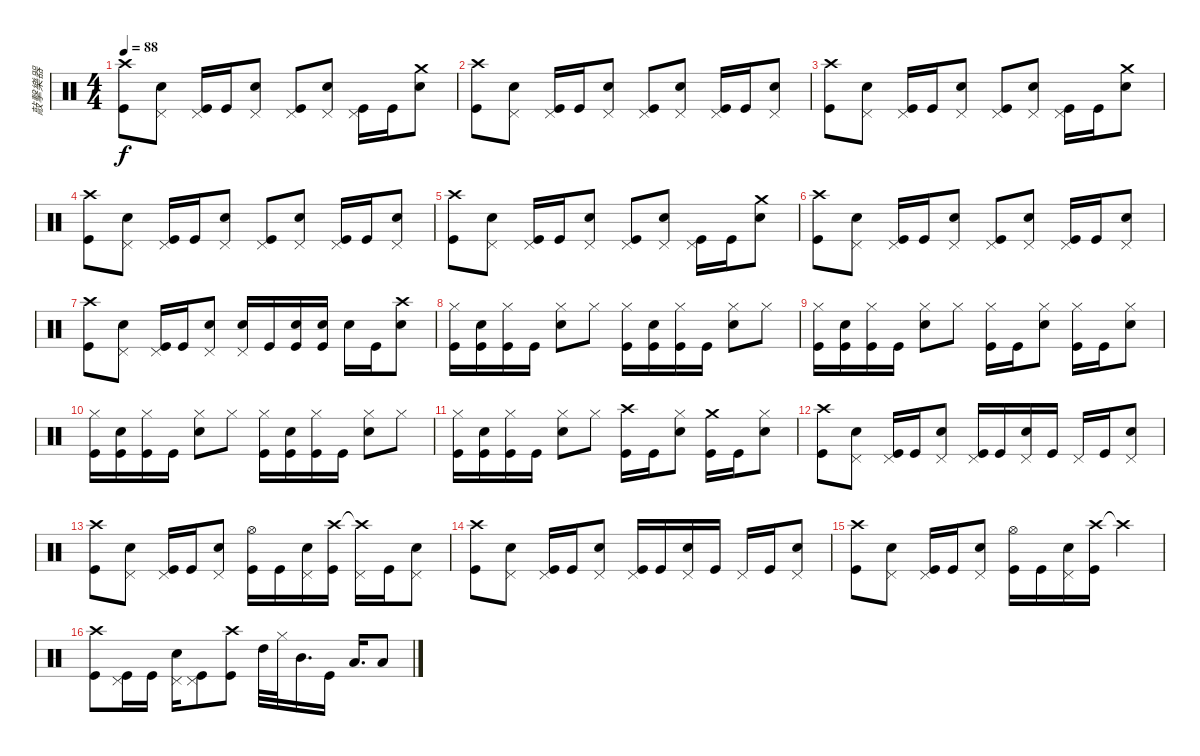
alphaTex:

\track ("敲擊樂器" "敲擊樂器") {instrument percussion}
\staff {score}
\articulation defaults
\ts (4 4)
\tempo 88
\clef neutral
\ks c
("Crash high (hit)" "Kick (hit)").8{dy f} ("Pedal Hi-Hat (hit)" "Snare (hit) 2").8 ("Pedal Hi-Hat (hit)" "Kick (hit)").16 "Kick (hit)".16 ("Pedal Hi-Hat (hit)" "Snare (hit) 2").8 ("Pedal Hi-Hat (hit)" "Kick (hit)").8 ("Pedal Hi-Hat (hit)" "Snare (hit) 2").8 ("Pedal Hi-Hat (hit)" "Kick (hit)").16 "Kick (hit)".16 ("Crash medium (hit)" "Snare (hit) 2").8 |
("Crash high (hit)" "Kick (hit)").8 ("Pedal Hi-Hat (hit)" "Snare (hit) 2").8 ("Pedal Hi-Hat (hit)" "Kick (hit)").16 "Kick (hit)".16 ("Pedal Hi-Hat (hit)" "Snare (hit) 2").8 ("Pedal Hi-Hat (hit)" "Kick (hit)").8 ("Pedal Hi-Hat (hit)" "Snare (hit) 2").8 ("Pedal Hi-Hat (hit)" "Kick (hit)").16 "Kick (hit)".16 ("Pedal Hi-Hat (hit)" "Snare (hit) 2").8 |
("Crash high (hit)" "Kick (hit)").8 ("Pedal Hi-Hat (hit)" "Snare (hit) 2").8 ("Pedal Hi-Hat (hit)" "Kick (hit)").16 "Kick (hit)".16 ("Pedal Hi-Hat (hit)" "Snare (hit) 2").8 ("Pedal Hi-Hat (hit)" "Kick (hit)").8 ("Pedal Hi-Hat (hit)" "Snare (hit) 2").8 ("Pedal Hi-Hat (hit)" "Kick (hit)").16 "Kick (hit)".16 ("Crash medium (hit)" "Snare (hit) 2").8 |
("Crash high (hit)" "Kick (hit)").8 ("Pedal Hi-Hat (hit)" "Snare (hit) 2").8 ("Pedal Hi-Hat (hit)" "Kick (hit)").16 "Kick (hit)".16 ("Pedal Hi-Hat (hit)" "Snare (hit) 2").8 ("Pedal Hi-Hat (hit)" "Kick (hit)").8 ("Pedal Hi-Hat (hit)" "Snare (hit) 2").8 ("Pedal Hi-Hat (hit)" "Kick (hit)").16 "Kick (hit)".16 ("Pedal Hi-Hat (hit)" "Snare (hit) 2").8 |
("Crash high (hit)" "Kick (hit)").8 ("Pedal Hi-Hat (hit)" "Snare (hit) 2").8 ("Pedal Hi-Hat (hit)" "Kick (hit)").16 "Kick (hit)".16 ("Pedal Hi-Hat (hit)" "Snare (hit) 2").8 ("Pedal Hi-Hat (hit)" "Kick (hit)").8 ("Pedal Hi-Hat (hit)" "Snare (hit) 2").8 ("Pedal Hi-Hat (hit)" "Kick (hit)").16 "Kick (hit)".16 ("Crash medium (hit)" "Snare (hit) 2").8 |
("Crash high (hit)" "Kick (hit)").8 ("Pedal Hi-Hat (hit)" "Snare (hit) 2").8 ("Pedal Hi-Hat (hit)" "Kick (hit)").16 "Kick (hit)".16 ("Pedal Hi-Hat (hit)" "Snare (hit) 2").8 ("Pedal Hi-Hat (hit)" "Kick (hit)").8 ("Pedal Hi-Hat (hit)" "Snare (hit) 2").8 ("Pedal Hi-Hat (hit)" "Kick (hit)").16 "Kick (hit)".16 ("Pedal Hi-Hat (hit)" "Snare (hit) 2").8 |
("Crash high (hit)" "Kick (hit)").8 ("Pedal Hi-Hat (hit)" "Snare (hit) 2").8 ("Pedal Hi-Hat (hit)" "Kick (hit)").16 "Kick (hit)".16 ("Pedal Hi-Hat (hit)" "Snare (hit) 2").8 ("Pedal Hi-Hat (hit)" "Snare (hit) 2").16 "Kick (hit)".16 ("Snare (hit) 2" "Kick (hit)").16 ("Snare (hit) 2" "Kick (hit)").16 "Snare (hit) 2".16 "Kick (hit)".16 ("Crash high (hit)" "Snare (hit) 2").8 |
("Hi-Hat (closed)" "Kick (hit)").16 ("Snare (hit) 2" "Kick (hit)").16 ("Hi-Hat (closed)" "Kick (hit)").16 "Kick (hit)".16 ("Hi-Hat (closed)" "Snare (hit) 2").8 "Hi-Hat (closed)".8 ("Hi-Hat (closed)" "Kick (hit)").16 ("Snare (hit) 2" "Kick (hit)").16 ("Hi-Hat (closed)" "Kick (hit)").16 "Kick (hit)".16 ("Hi-Hat (closed)" "Snare (hit) 2").8 "Hi-Hat (closed)".8 |
("Hi-Hat (closed)" "Kick (hit)").16 ("Snare (hit) 2" "Kick (hit)").16 ("Hi-Hat (closed)" "Kick (hit)").16 "Kick (hit)".16 ("Hi-Hat (closed)" "Snare (hit) 2").8 "Hi-Hat (closed)".8 ("Hi-Hat (closed)" "Kick (hit)").16 "Kick (hit)".16 ("Hi-Hat (closed)" "Snare (hit) 2").8 ("Hi-Hat (closed)" "Kick (hit)").16 "Kick (hit)".16 ("Hi-Hat (closed)" "Snare (hit) 2").8 |
("Hi-Hat (closed)" "Kick (hit)").16 ("Snare (hit) 2" "Kick (hit)").16 ("Hi-Hat (closed)" "Kick (hit)").16 "Kick (hit)".16 ("Hi-Hat (closed)" "Snare (hit) 2").8 "Hi-Hat (closed)".8 ("Hi-Hat (closed)" "Kick (hit)").16 ("Snare (hit) 2" "Kick (hit)").16 ("Hi-Hat (closed)" "Kick (hit)").16 "Kick (hit)".16 ("Hi-Hat (closed)" "Snare (hit) 2").8 "Hi-Hat (closed)".8 |
("Hi-Hat (closed)" "Kick (hit)").16 ("Snare (hit) 2" "Kick (hit)").16 ("Hi-Hat (closed)" "Kick (hit)").16 "Kick (hit)".16 ("Hi-Hat (closed)" "Snare (hit) 2").8 "Hi-Hat (closed)".8 ("Crash high (hit)" "Kick (hit)").16 "Kick (hit)".16 ("Hi-Hat (closed)" "Snare (hit) 2").8 ("Crash medium (hit)" "Kick (hit)").16 "Kick (hit)".16 ("Hi-Hat (closed)" "Snare (hit) 2").8 |
("Crash high (hit)" "Kick (hit)").8 ("Pedal Hi-Hat (hit)" "Snare (hit) 2").8 ("Pedal Hi-Hat (hit)" "Kick (hit)").16 "Kick (hit)".16 ("Pedal Hi-Hat (hit)" "Snare (hit) 2").8 ("Pedal Hi-Hat (hit)" "Kick (hit)").16 "Kick (hit)".16 ("Pedal Hi-Hat (hit)" "Snare (hit) 2").16 "Kick (hit)".16 "Pedal Hi-Hat (hit)".16 "Kick (hit)".16 ("Pedal Hi-Hat (hit)" "Snare (hit) 2").8 |
("Crash high (hit)" "Kick (hit)").8 ("Pedal Hi-Hat (hit)" "Snare (hit) 2").8 ("Pedal Hi-Hat (hit)" "Kick (hit)").16 "Kick (hit)".16 ("Pedal Hi-Hat (hit)" "Snare (hit) 2").8 ("Hi-Hat (open)" "Kick (hit)").16 "Kick (hit)".16 ("Pedal Hi-Hat (hit)" "Snare (hit) 2").16 ("Crash high (hit)" "Kick (hit)").16 ("Crash high (hit)"{t} "Pedal Hi-Hat (hit)").16 "Kick (hit)".16 ("Pedal Hi-Hat (hit)" "Snare (hit) 2").8 |
("Crash high (hit)" "Kick (hit)").8 ("Pedal Hi-Hat (hit)" "Snare (hit) 2").8 ("Pedal Hi-Hat (hit)" "Kick (hit)").16 "Kick (hit)".16 ("Pedal Hi-Hat (hit)" "Snare (hit) 2").8 ("Pedal Hi-Hat (hit)" "Kick (hit)").16 "Kick (hit)".16 ("Pedal Hi-Hat (hit)" "Snare (hit) 2").16 "Kick (hit)".16 "Pedal Hi-Hat (hit)".16 "Kick (hit)".16 ("Pedal Hi-Hat (hit)" "Snare (hit) 2").8 |
("Crash high (hit)" "Kick (hit)").8 ("Pedal Hi-Hat (hit)" "Snare (hit) 2").8 ("Pedal Hi-Hat (hit)" "Kick (hit)").16 "Kick (hit)".16 ("Pedal Hi-Hat (hit)" "Snare (hit) 2").8 ("Hi-Hat (open)" "Kick (hit)").16 "Kick (hit)".16 ("Pedal Hi-Hat (hit)" "Snare (hit) 2").16 ("Crash high (hit)" "Kick (hit)").16 "Crash high (hit)"{t}.4 |
("Crash high (hit)" "Kick (hit)").8 ("Pedal Hi-Hat (hit)" "Kick (hit)").16 "Kick (hit)".16 ("Pedal Hi-Hat (hit)" "Snare (hit) 2").16 ("Pedal Hi-Hat (hit)" "Kick (hit)").8 ("Crash high (hit)" "Kick (hit)").8 "High Tom (hit)".32 "Hi-Hat (closed)".32 "Mid Tom (hit)".16{d} "Kick (hit)".16 "Low Tom (hit)".16{d} "Low Floor Tom (hit)".8
